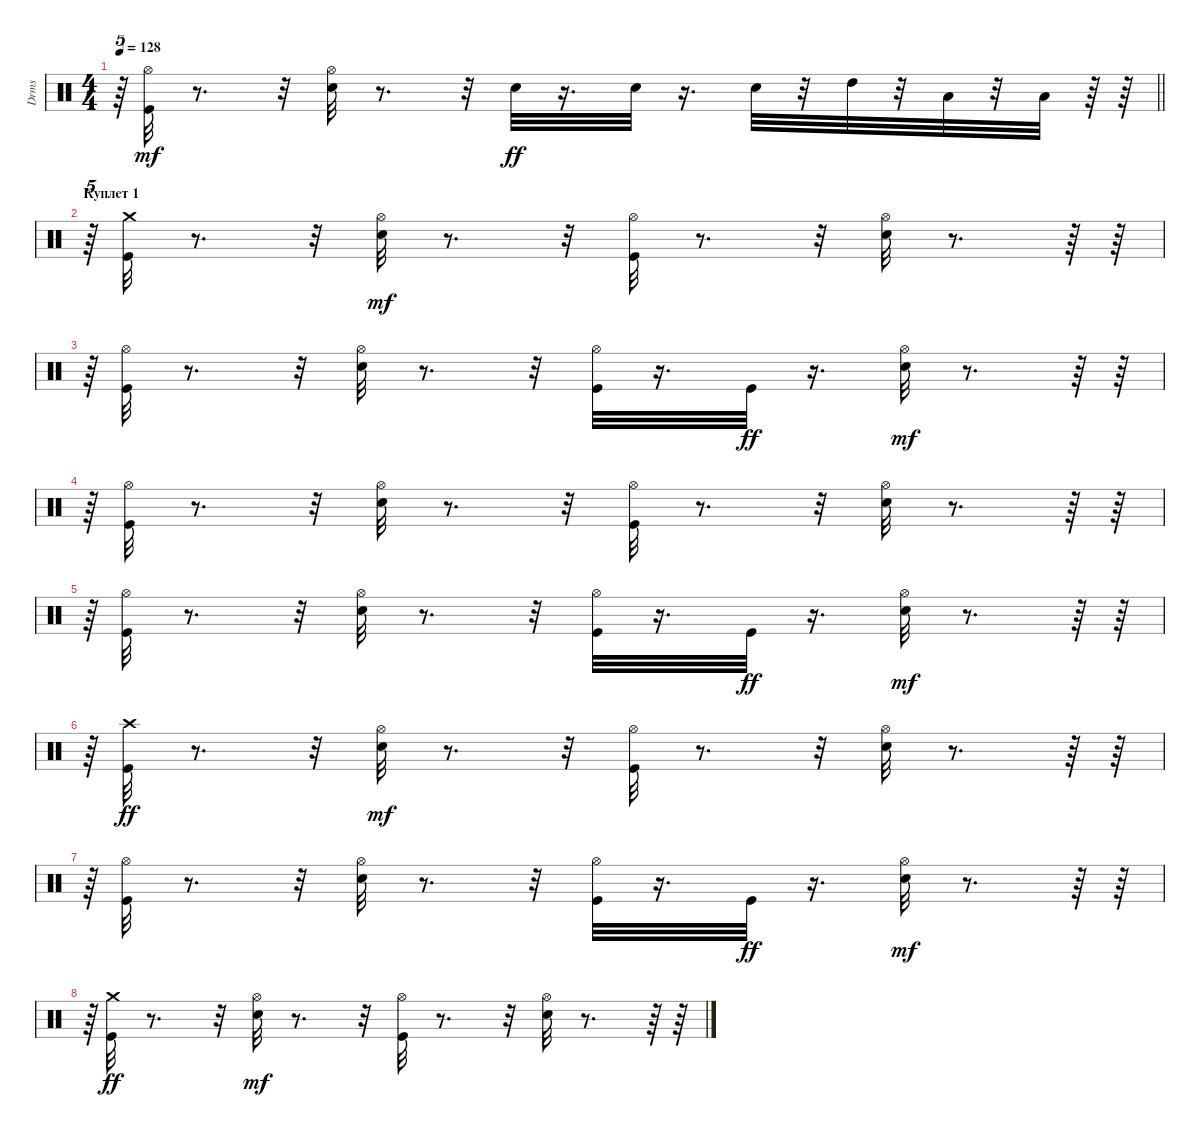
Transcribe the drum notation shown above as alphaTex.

\track ("Drms" "Drms") {instrument percussion}
\staff {score}
\articulation defaults
\ts (4 4)
\tempo 128
\clef neutral
\barLineRight lightlight
\ks c
r.64{tu (5 4) dy mf} ("Kick (hit)" "Hi-Hat (open)").32 r.8{d} r.32 ("Snare (hit) 2" "Hi-Hat (open)").32 r.8{d} r.32 "Snare (hit) 2".32{dy ff} r.16{d} "Snare (hit) 2".32 r.16{d} "Snare (hit) 2".32 r.32 "High Tom (hit)".32 r.32 "Low Tom (hit)".32 r.32 "Low Floor Tom (hit)".32 r.64 r.64 |
\section ("" "Куплет 1")
r.64{tu (5 4)} ("Kick (hit)" "Crash medium (hit)").32 r.8{d} r.32 ("Snare (hit) 2" "Hi-Hat (open)").32{dy mf} r.8{d} r.32 ("Kick (hit)" "Hi-Hat (open)").32 r.8{d} r.32 ("Snare (hit) 2" "Hi-Hat (open)").32 r.8{d} r.64 r.64 |
r.64{tu (5 4)} ("Kick (hit)" "Hi-Hat (open)").32 r.8{d} r.32 ("Snare (hit) 2" "Hi-Hat (open)").32 r.8{d} r.32 ("Kick (hit)" "Hi-Hat (open)").32 r.16{d} "Kick (hit)".32{dy ff} r.16{d} ("Snare (hit) 2" "Hi-Hat (open)").32{dy mf} r.8{d} r.64 r.64 |
r.64{tu (5 4)} ("Kick (hit)" "Hi-Hat (open)").32 r.8{d} r.32 ("Snare (hit) 2" "Hi-Hat (open)").32 r.8{d} r.32 ("Kick (hit)" "Hi-Hat (open)").32 r.8{d} r.32 ("Snare (hit) 2" "Hi-Hat (open)").32 r.8{d} r.64 r.64 |
r.64{tu (5 4)} ("Kick (hit)" "Hi-Hat (open)").32 r.8{d} r.32 ("Snare (hit) 2" "Hi-Hat (open)").32 r.8{d} r.32 ("Kick (hit)" "Hi-Hat (open)").32 r.16{d} "Kick (hit)".32{dy ff} r.16{d} ("Snare (hit) 2" "Hi-Hat (open)").32{dy mf} r.8{d} r.64 r.64 |
r.64{tu (5 4)} ("Kick (hit)" "Crash high (hit)").32{dy ff} r.8{d} r.32 ("Snare (hit) 2" "Hi-Hat (open)").32{dy mf} r.8{d} r.32 ("Kick (hit)" "Hi-Hat (open)").32 r.8{d} r.32 ("Snare (hit) 2" "Hi-Hat (open)").32 r.8{d} r.64 r.64 |
r.64{tu (5 4)} ("Kick (hit)" "Hi-Hat (open)").32 r.8{d} r.32 ("Snare (hit) 2" "Hi-Hat (open)").32 r.8{d} r.32 ("Kick (hit)" "Hi-Hat (open)").32 r.16{d} "Kick (hit)".32{dy ff} r.16{d} ("Snare (hit) 2" "Hi-Hat (open)").32{dy mf} r.8{d} r.64 r.64 |
r.64{tu (5 4)} ("Kick (hit)" "Crash medium (hit)").32{dy ff} r.8{d} r.32 ("Snare (hit) 2" "Hi-Hat (open)").32{dy mf} r.8{d} r.32 ("Kick (hit)" "Hi-Hat (open)").32 r.8{d} r.32 ("Snare (hit) 2" "Hi-Hat (open)").32 r.8{d} r.64 r.64
